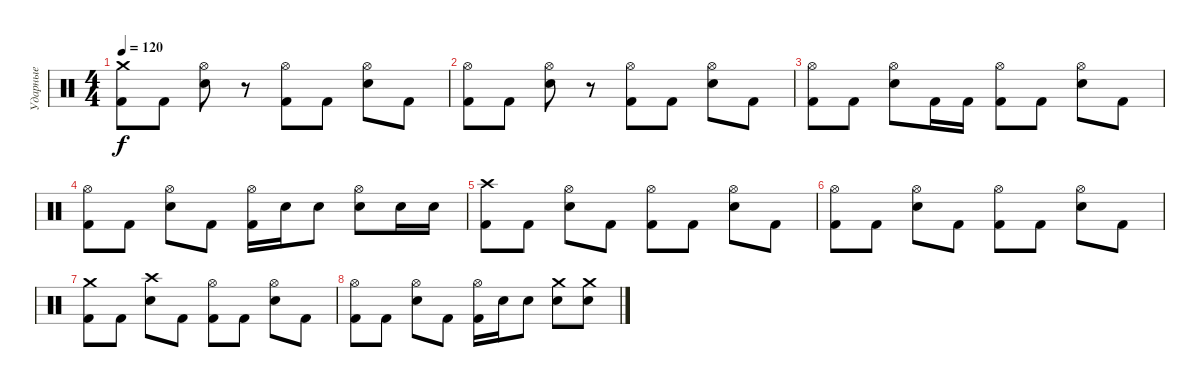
\track ("Ударные" "Ударные") {instrument percussion}
\staff {score}
\articulation defaults
\ts (4 4)
\tempo 120
\clef neutral
\ks c
("Crash medium (hit)" "Kick (hit) 2").8{dy f} "Kick (hit) 2".8 ("Hi-Hat (open)" "Electric Snare (hit)").8 r.8 ("Hi-Hat (open)" "Kick (hit) 2").8 "Kick (hit) 2".8 ("Hi-Hat (open)" "Electric Snare (hit)").8 "Kick (hit) 2".8 |
("Hi-Hat (open)" "Kick (hit) 2").8 "Kick (hit) 2".8 ("Hi-Hat (open)" "Electric Snare (hit)").8 r.8 ("Hi-Hat (open)" "Kick (hit) 2").8 "Kick (hit) 2".8 ("Hi-Hat (open)" "Electric Snare (hit)").8 "Kick (hit) 2".8 |
("Hi-Hat (open)" "Kick (hit) 2").8 "Kick (hit) 2".8 ("Hi-Hat (open)" "Electric Snare (hit)").8 "Kick (hit) 2".16 "Kick (hit) 2".16 ("Hi-Hat (open)" "Kick (hit) 2").8 "Kick (hit) 2".8 ("Hi-Hat (open)" "Electric Snare (hit)").8 "Kick (hit) 2".8 |
("Hi-Hat (open)" "Kick (hit) 2").8 "Kick (hit) 2".8 ("Hi-Hat (open)" "Electric Snare (hit)").8 "Kick (hit) 2".8 ("Hi-Hat (open)" "Kick (hit) 2").16 "Electric Snare (hit)".16 "Electric Snare (hit)".8 ("Hi-Hat (open)" "Electric Snare (hit)").8 "Electric Snare (hit)".16 "Electric Snare (hit)".16 |
("Crash high (hit)" "Kick (hit) 2").8 "Kick (hit) 2".8 ("Hi-Hat (open)" "Electric Snare (hit)").8 "Kick (hit) 2".8 ("Hi-Hat (open)" "Kick (hit) 2").8 "Kick (hit) 2".8 ("Hi-Hat (open)" "Electric Snare (hit)").8 "Kick (hit) 2".8 |
("Hi-Hat (open)" "Kick (hit) 2").8 "Kick (hit) 2".8 ("Hi-Hat (open)" "Electric Snare (hit)").8 "Kick (hit) 2".8 ("Hi-Hat (open)" "Kick (hit) 2").8 "Kick (hit) 2".8 ("Hi-Hat (open)" "Electric Snare (hit)").8 "Kick (hit) 2".8 |
("Crash medium (hit)" "Kick (hit) 2").8 "Kick (hit) 2".8 ("Crash high (hit)" "Electric Snare (hit)").8 "Kick (hit) 2".8 ("Hi-Hat (open)" "Kick (hit) 2").8 "Kick (hit) 2".8 ("Hi-Hat (open)" "Electric Snare (hit)").8 "Kick (hit) 2".8 |
("Hi-Hat (open)" "Kick (hit) 2").8 "Kick (hit) 2".8 ("Hi-Hat (open)" "Electric Snare (hit)").8 "Kick (hit) 2".8 ("Hi-Hat (open)" "Kick (hit) 2").16 "Electric Snare (hit)".16 "Electric Snare (hit)".8 ("Crash medium (hit)" "Electric Snare (hit)").8 ("Crash medium (hit)" "Electric Snare (hit)").8
